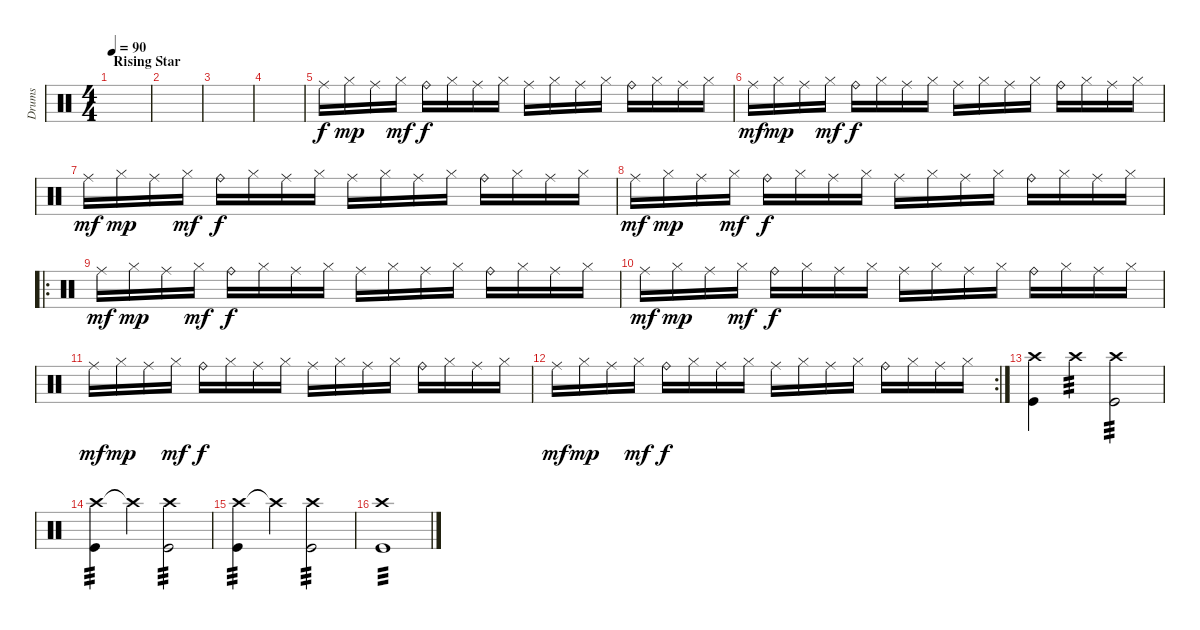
\track ("Drums" "Drums") {instrument percussion}
\staff {score}
\articulation defaults
\ts (4 4)
\section ("" "Rising Star")
\tempo 90
\clef neutral
\ks c
|
|
|
|
"Ride (middle)".16 "Hi-Hat (closed)".16{dy mp} "Ride (middle)".16 "Hi-Hat (closed)".16{dy mf} "Ride (bell)".16{dy f} "Hi-Hat (closed)".16 "Ride (middle)".16 "Hi-Hat (closed)".16 "Ride (middle)".16 "Hi-Hat (closed)".16 "Ride (middle)".16 "Hi-Hat (closed)".16 "Ride (bell)".16 "Hi-Hat (closed)".16 "Ride (middle)".16 "Hi-Hat (closed)".16 |
"Ride (middle)".16{dy mf} "Hi-Hat (closed)".16{dy mp} "Ride (middle)".16 "Hi-Hat (closed)".16{dy mf} "Ride (bell)".16{dy f} "Hi-Hat (closed)".16 "Ride (middle)".16 "Hi-Hat (closed)".16 "Ride (middle)".16 "Hi-Hat (closed)".16 "Ride (middle)".16 "Hi-Hat (closed)".16 "Ride (bell)".16 "Hi-Hat (closed)".16 "Ride (middle)".16 "Hi-Hat (closed)".16 |
"Ride (middle)".16{dy mf} "Hi-Hat (closed)".16{dy mp} "Ride (middle)".16 "Hi-Hat (closed)".16{dy mf} "Ride (bell)".16{dy f} "Hi-Hat (closed)".16 "Ride (middle)".16 "Hi-Hat (closed)".16 "Ride (middle)".16 "Hi-Hat (closed)".16 "Ride (middle)".16 "Hi-Hat (closed)".16 "Ride (bell)".16 "Hi-Hat (closed)".16 "Ride (middle)".16 "Hi-Hat (closed)".16 |
"Ride (middle)".16{dy mf} "Hi-Hat (closed)".16{dy mp} "Ride (middle)".16 "Hi-Hat (closed)".16{dy mf} "Ride (bell)".16{dy f} "Hi-Hat (closed)".16 "Ride (middle)".16 "Hi-Hat (closed)".16 "Ride (middle)".16 "Hi-Hat (closed)".16 "Ride (middle)".16 "Hi-Hat (closed)".16 "Ride (bell)".16 "Hi-Hat (closed)".16 "Ride (middle)".16 "Hi-Hat (closed)".16 |
\ro "Ride (middle)".16{dy mf} "Hi-Hat (closed)".16{dy mp} "Ride (middle)".16 "Hi-Hat (closed)".16{dy mf} "Ride (bell)".16{dy f} "Hi-Hat (closed)".16 "Ride (middle)".16 "Hi-Hat (closed)".16 "Ride (middle)".16 "Hi-Hat (closed)".16 "Ride (middle)".16 "Hi-Hat (closed)".16 "Ride (bell)".16 "Hi-Hat (closed)".16 "Ride (middle)".16 "Hi-Hat (closed)".16
|
"Ride (middle)".16{dy mf} "Hi-Hat (closed)".16{dy mp} "Ride (middle)".16 "Hi-Hat (closed)".16{dy mf} "Ride (bell)".16{dy f} "Hi-Hat (closed)".16 "Ride (middle)".16 "Hi-Hat (closed)".16 "Ride (middle)".16 "Hi-Hat (closed)".16 "Ride (middle)".16 "Hi-Hat (closed)".16 "Ride (bell)".16 "Hi-Hat (closed)".16 "Ride (middle)".16 "Hi-Hat (closed)".16 |
"Ride (middle)".16{dy mf} "Hi-Hat (closed)".16{dy mp} "Ride (middle)".16 "Hi-Hat (closed)".16{dy mf} "Ride (bell)".16{dy f} "Hi-Hat (closed)".16 "Ride (middle)".16 "Hi-Hat (closed)".16 "Ride (middle)".16 "Hi-Hat (closed)".16 "Ride (middle)".16 "Hi-Hat (closed)".16 "Ride (bell)".16 "Hi-Hat (closed)".16 "Ride (middle)".16 "Hi-Hat (closed)".16 |
\rc 2 "Ride (middle)".16{dy mf} "Hi-Hat (closed)".16{dy mp} "Ride (middle)".16 "Hi-Hat (closed)".16{dy mf} "Ride (bell)".16{dy f} "Hi-Hat (closed)".16 "Ride (middle)".16 "Hi-Hat (closed)".16 "Ride (middle)".16 "Hi-Hat (closed)".16 "Ride (middle)".16 "Hi-Hat (closed)".16 "Ride (bell)".16 "Hi-Hat (closed)".16 "Ride (middle)".16 "Hi-Hat (closed)".16
|
("Crash high (hit)" "Kick (hit)").4 "Crash high (hit)".4{tp 3} ("Crash high (hit)" "Kick (hit)").2{tp 3} |
("Crash high (hit)" "Kick (hit)").4{tp 3} "Crash high (hit)"{t}.4 ("Crash high (hit)" "Kick (hit)").2{tp 3} |
("Crash high (hit)" "Kick (hit)").4{tp 3} "Crash high (hit)"{t}.4 ("Crash high (hit)" "Kick (hit)").2{tp 3} |
("Crash high (hit)" "Kick (hit)").1{tp 3}
